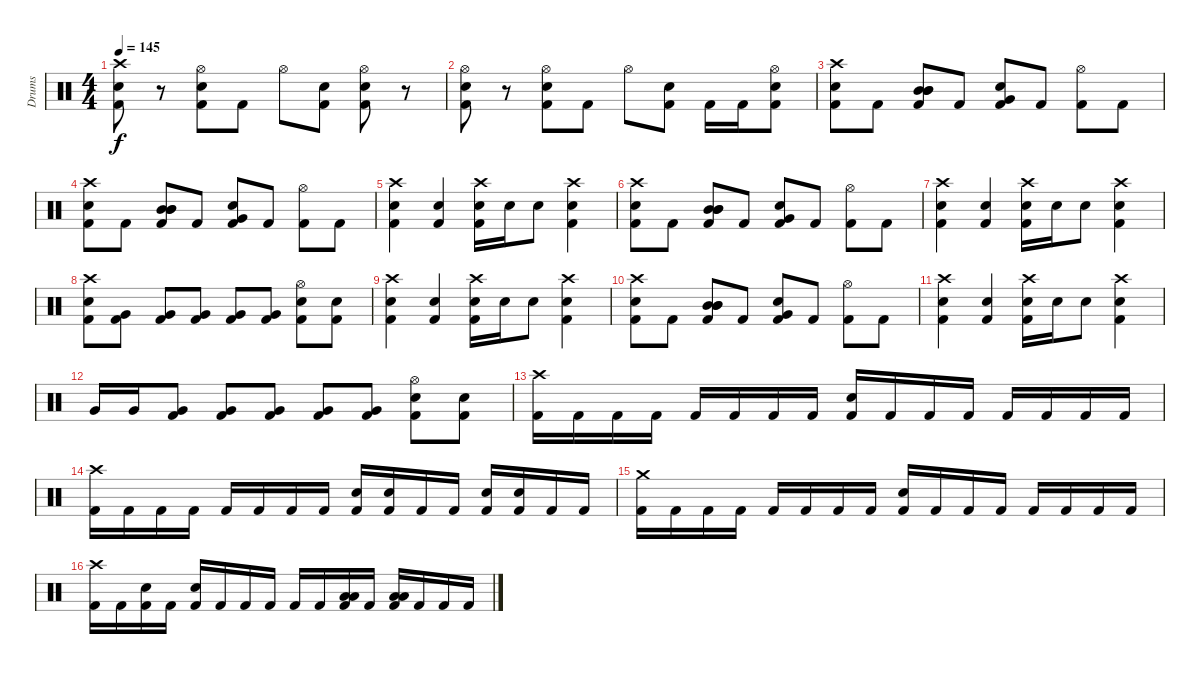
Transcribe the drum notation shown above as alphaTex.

\track ("Drums" "Drums") {instrument percussion}
\staff {score}
\articulation defaults
\ts (4 4)
\tempo 145
\clef neutral
\ks c
("Crash high (hit)" "Snare (hit) 2" "Kick (hit) 2").8{dy f} r.8 ("Snare (hit) 2" "Hi-Hat (open)" "Kick (hit) 2").8 "Kick (hit) 2".8 "Hi-Hat (open)".8 ("Snare (hit) 2" "Kick (hit) 2").8 ("Snare (hit) 2" "Hi-Hat (open)" "Kick (hit) 2").8 r.8 |
("Hi-Hat (open)" "Snare (hit) 2" "Kick (hit) 2").8 r.8 ("Snare (hit) 2" "Hi-Hat (open)" "Kick (hit) 2").8 "Kick (hit) 2".8 "Hi-Hat (open)".8 ("Snare (hit) 2" "Kick (hit) 2").8 "Kick (hit) 2".16 "Kick (hit) 2".16 ("Hi-Hat (open)" "Snare (hit) 2" "Kick (hit) 2").8 |
("Crash high (hit)" "Snare (hit) 2" "Kick (hit) 2").8 "Kick (hit) 2".8 ("Mid Tom (hit)" "Mid Tom (hit)" "Mid Tom (hit)" "Kick (hit) 2").8 "Kick (hit) 2".8 ("Snare (hit) 2" "Very Low Tom (hit)" "Kick (hit) 2").8 "Kick (hit) 2".8 ("Hi-Hat (open)" "Kick (hit) 2").8 "Kick (hit) 2".8 |
("Crash high (hit)" "Snare (hit) 2" "Kick (hit) 2").8 "Kick (hit) 2".8 ("Mid Tom (hit)" "Mid Tom (hit)" "Mid Tom (hit)" "Kick (hit) 2").8 "Kick (hit) 2".8 ("Snare (hit) 2" "Very Low Tom (hit)" "Kick (hit) 2").8 "Kick (hit) 2".8 ("Hi-Hat (open)" "Kick (hit) 2").8 "Kick (hit) 2".8 |
("Crash high (hit)" "Snare (hit) 2" "Kick (hit) 2").4 ("Snare (hit) 2" "Kick (hit) 2").4 ("Crash high (hit)" "Snare (hit) 2" "Kick (hit) 2").16 "Snare (hit) 2".16 "Snare (hit) 2".8 ("Crash high (hit)" "Snare (hit) 2" "Kick (hit) 2").4 |
("Crash high (hit)" "Snare (hit) 2" "Kick (hit) 2").8 "Kick (hit) 2".8 ("Mid Tom (hit)" "Mid Tom (hit)" "Mid Tom (hit)" "Kick (hit) 2").8 "Kick (hit) 2".8 ("Snare (hit) 2" "Very Low Tom (hit)" "Kick (hit) 2").8 "Kick (hit) 2".8 ("Hi-Hat (open)" "Kick (hit) 2").8 "Kick (hit) 2".8 |
("Crash high (hit)" "Snare (hit) 2" "Kick (hit) 2").4 ("Snare (hit) 2" "Kick (hit) 2").4 ("Crash high (hit)" "Snare (hit) 2" "Kick (hit) 2").16 "Snare (hit) 2".16 "Snare (hit) 2".8 ("Crash high (hit)" "Snare (hit) 2" "Kick (hit) 2").4 |
("Crash high (hit)" "Snare (hit) 2" "Kick (hit) 2").8 ("Very Low Tom (hit)" "Kick (hit) 2").8 ("Very Low Tom (hit)" "Kick (hit) 2").8 ("Very Low Tom (hit)" "Kick (hit) 2").8 ("Very Low Tom (hit)" "Kick (hit) 2").8 ("Very Low Tom (hit)" "Kick (hit) 2").8 ("Hi-Hat (open)" "Snare (hit) 2" "Kick (hit) 2").8 ("Snare (hit) 2" "Kick (hit) 2").8 |
("Crash high (hit)" "Snare (hit) 2" "Kick (hit) 2").4 ("Snare (hit) 2" "Kick (hit) 2").4 ("Crash high (hit)" "Snare (hit) 2" "Kick (hit) 2").16 "Snare (hit) 2".16 "Snare (hit) 2".8 ("Crash high (hit)" "Snare (hit) 2" "Kick (hit) 2").4 |
("Crash high (hit)" "Snare (hit) 2" "Kick (hit) 2").8 "Kick (hit) 2".8 ("Mid Tom (hit)" "Mid Tom (hit)" "Mid Tom (hit)" "Kick (hit) 2").8 "Kick (hit) 2".8 ("Snare (hit) 2" "Very Low Tom (hit)" "Kick (hit) 2").8 "Kick (hit) 2".8 ("Hi-Hat (open)" "Kick (hit) 2").8 "Kick (hit) 2".8 |
("Crash high (hit)" "Snare (hit) 2" "Kick (hit) 2").4 ("Snare (hit) 2" "Kick (hit) 2").4 ("Crash high (hit)" "Snare (hit) 2" "Kick (hit) 2").16 "Snare (hit) 2".16 "Snare (hit) 2".8 ("Crash high (hit)" "Snare (hit) 2" "Kick (hit) 2").4 |
"Very Low Tom (hit)".16 "Very Low Tom (hit)".16 ("Very Low Tom (hit)" "Kick (hit) 2").8 ("Very Low Tom (hit)" "Kick (hit) 2").8 ("Very Low Tom (hit)" "Kick (hit) 2").8 ("Very Low Tom (hit)" "Kick (hit) 2").8 ("Very Low Tom (hit)" "Kick (hit) 2").8 ("Hi-Hat (open)" "Snare (hit) 2" "Kick (hit) 2").8 ("Snare (hit) 2" "Kick (hit) 2").8 |
("Crash high (hit)" "Kick (hit) 2").16 "Kick (hit) 2".16 "Kick (hit) 2".16 "Kick (hit) 2".16 "Kick (hit) 2".16 "Kick (hit) 2".16 "Kick (hit) 2".16 "Kick (hit) 2".16 ("Snare (hit) 2" "Kick (hit) 2").16 "Kick (hit) 2".16 "Kick (hit) 2".16 "Kick (hit) 2".16 "Kick (hit) 2".16 "Kick (hit) 2".16 "Kick (hit) 2".16 "Kick (hit) 2".16 |
("Crash high (hit)" "Kick (hit) 2").16 "Kick (hit) 2".16 "Kick (hit) 2".16 "Kick (hit) 2".16 "Kick (hit) 2".16 "Kick (hit) 2".16 "Kick (hit) 2".16 "Kick (hit) 2".16 ("Snare (hit) 2" "Kick (hit) 2").16 ("Snare (hit) 2" "Kick (hit) 2").16 "Kick (hit) 2".16 "Kick (hit) 2".16 ("Snare (hit) 2" "Kick (hit) 2").16 ("Snare (hit) 2" "Kick (hit) 2").16 "Kick (hit) 2".16 "Kick (hit) 2".16 |
("Crash medium (hit)" "Kick (hit) 2").16 "Kick (hit) 2".16 "Kick (hit) 2".16 "Kick (hit) 2".16 "Kick (hit) 2".16 "Kick (hit) 2".16 "Kick (hit) 2".16 "Kick (hit) 2".16 ("Snare (hit) 2" "Kick (hit) 2").16 "Kick (hit) 2".16 "Kick (hit) 2".16 "Kick (hit) 2".16 "Kick (hit) 2".16 "Kick (hit) 2".16 "Kick (hit) 2".16 "Kick (hit) 2".16 |
("Crash high (hit)" "Kick (hit) 2").16 "Kick (hit) 2".16 ("Snare (hit) 2" "Kick (hit) 2").16 "Kick (hit) 2".16 ("Snare (hit) 2" "Kick (hit) 2").16 "Kick (hit) 2".16 "Kick (hit) 2".16 "Kick (hit) 2".16 "Kick (hit) 2".16 "Kick (hit) 2".16 ("Low Tom (hit)" "Low Tom (hit)" "Kick (hit) 2").16 "Kick (hit) 2".16 ("Low Tom (hit)" "Low Tom (hit)" "Kick (hit) 2").16 "Kick (hit) 2".16 "Kick (hit) 2".16 "Kick (hit) 2".16
